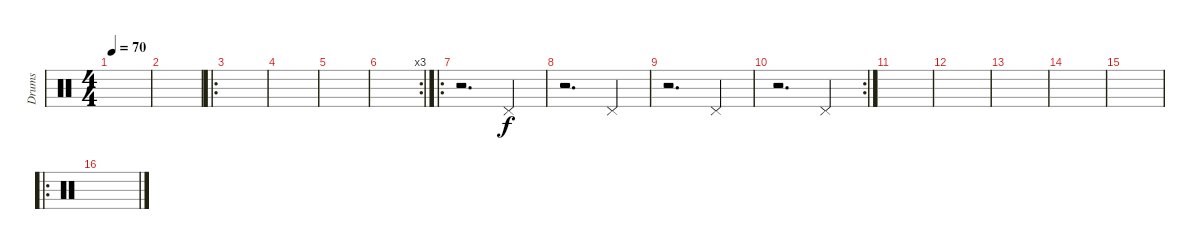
\track ("Drums" "Drums") {instrument percussion}
\staff {score}
\articulation defaults
\ts (4 4)
\tempo 70
\clef neutral
\ks c
|
|
\ro
|
|
|
\rc 3
|
\ro
r.2{d} "Pedal Hi-Hat (hit)".4 |
r.2{d} "Pedal Hi-Hat (hit)".4 |
r.2{d} "Pedal Hi-Hat (hit)".4 |
\rc 2
r.2{d} "Pedal Hi-Hat (hit)".4 |
|
|
|
|
|
\ro
